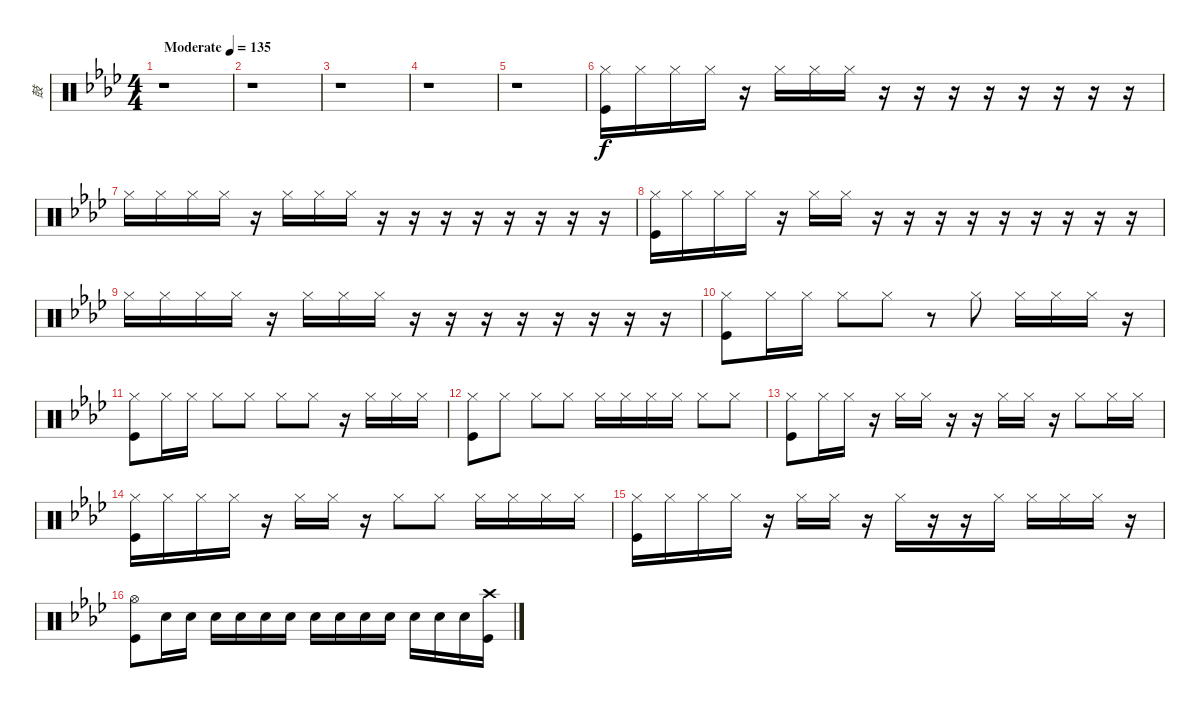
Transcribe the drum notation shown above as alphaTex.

\track ("鼓" "鼓") {instrument percussion}
\staff {score}
\articulation defaults
\ts (4 4)
\tempo (135 "Moderate")
\clef neutral
\ks ab
r.1{dy f} |
r.1 |
r.1 |
r.1 |
r.1 |
("Hi-Hat (closed)" "Kick (hit)").16 "Hi-Hat (closed)".16 "Hi-Hat (closed)".16 "Hi-Hat (closed)".16 r.16 "Hi-Hat (closed)".16 "Hi-Hat (closed)".16 "Hi-Hat (closed)".16 r.16 r.16 r.16 r.16 r.16 r.16 r.16 r.16 |
"Hi-Hat (closed)".16 "Hi-Hat (closed)".16 "Hi-Hat (closed)".16 "Hi-Hat (closed)".16 r.16 "Hi-Hat (closed)".16 "Hi-Hat (closed)".16 "Hi-Hat (closed)".16 r.16 r.16 r.16 r.16 r.16 r.16 r.16 r.16 |
("Hi-Hat (closed)" "Kick (hit)").16 "Hi-Hat (closed)".16 "Hi-Hat (closed)".16 "Hi-Hat (closed)".16 r.16 "Hi-Hat (closed)".16 "Hi-Hat (closed)".16 r.16 r.16 r.16 r.16 r.16 r.16 r.16 r.16 r.16 |
"Hi-Hat (closed)".16 "Hi-Hat (closed)".16 "Hi-Hat (closed)".16 "Hi-Hat (closed)".16 r.16 "Hi-Hat (closed)".16 "Hi-Hat (closed)".16 "Hi-Hat (closed)".16 r.16 r.16 r.16 r.16 r.16 r.16 r.16 r.16 |
("Hi-Hat (closed)" "Kick (hit)").8 "Hi-Hat (closed)".16 "Hi-Hat (closed)".16 "Hi-Hat (closed)".8 "Hi-Hat (closed)".8 r.8 "Hi-Hat (closed)".8 "Hi-Hat (closed)".16 "Hi-Hat (closed)".16 "Hi-Hat (closed)".16 r.16 |
("Hi-Hat (closed)" "Kick (hit)").8 "Hi-Hat (closed)".16 "Hi-Hat (closed)".16 "Hi-Hat (closed)".8 "Hi-Hat (closed)".8 "Hi-Hat (closed)".8 "Hi-Hat (closed)".8 r.16 "Hi-Hat (closed)".16 "Hi-Hat (closed)".16 "Hi-Hat (closed)".16 |
("Hi-Hat (closed)" "Kick (hit)").8 "Hi-Hat (closed)".8 "Hi-Hat (closed)".8 "Hi-Hat (closed)".8 "Hi-Hat (closed)".16 "Hi-Hat (closed)".16 "Hi-Hat (closed)".16 "Hi-Hat (closed)".16 "Hi-Hat (closed)".8 "Hi-Hat (closed)".8 |
("Hi-Hat (closed)" "Kick (hit)").8 "Hi-Hat (closed)".16 "Hi-Hat (closed)".16 r.16 "Hi-Hat (closed)".16 "Hi-Hat (closed)".16 r.16 r.16 "Hi-Hat (closed)".16 "Hi-Hat (closed)".16 r.16 "Hi-Hat (closed)".8 "Hi-Hat (closed)".16 "Hi-Hat (closed)".16 |
("Hi-Hat (closed)" "Kick (hit)").16 "Hi-Hat (closed)".16 "Hi-Hat (closed)".16 "Hi-Hat (closed)".16 r.16 "Hi-Hat (closed)".16 "Hi-Hat (closed)".16 r.16 "Hi-Hat (closed)".8 "Hi-Hat (closed)".8 "Hi-Hat (closed)".16 "Hi-Hat (closed)".16 "Hi-Hat (closed)".16 "Hi-Hat (closed)".16 |
("Hi-Hat (closed)" "Kick (hit)").16 "Hi-Hat (closed)".16 "Hi-Hat (closed)".16 "Hi-Hat (closed)".16 r.16 "Hi-Hat (closed)".16 "Hi-Hat (closed)".16 r.16 "Hi-Hat (closed)".16 r.16 r.16 "Hi-Hat (closed)".16 "Hi-Hat (closed)".16 "Hi-Hat (closed)".16 "Hi-Hat (closed)".16 r.16 |
("Hi-Hat (open)" "Kick (hit)").8 "Snare (hit) 2".16 "Snare (hit) 2".16 "Snare (hit) 2".16 "Snare (hit) 2".16 "Snare (hit) 2".16 "Snare (hit) 2".16 "Snare (hit) 2".16 "Snare (hit) 2".16 "Snare (hit) 2".16 "Snare (hit) 2".16 "Snare (hit) 2".16 "Snare (hit) 2".16 "Snare (hit) 2".16 ("Crash high (hit)" "Kick (hit)").16
